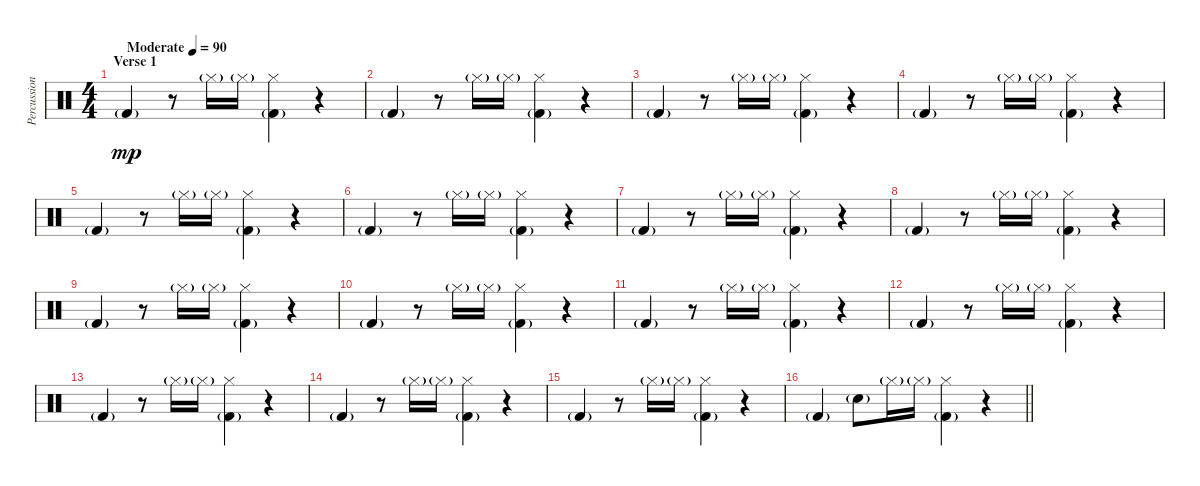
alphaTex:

\track ("Percussion" "Percussion") {instrument percussion}
\staff {score}
\articulation defaults
\ts (4 4)
\section ("" "Verse 1")
\tempo (90 "Moderate")
\clef neutral
\ks c "Kick (hit) 2"{g}.4{dy mp}
r.8 "Hi-Hat (closed)"{g}.16 "Hi-Hat (closed)"{g}.16 ("Hi-Hat (closed)" "Kick (hit) 2"{g}).4 r.4 |
"Kick (hit) 2"{g}.4 r.8 "Hi-Hat (closed)"{g}.16 "Hi-Hat (closed)"{g}.16 ("Hi-Hat (closed)" "Kick (hit) 2"{g}).4 r.4 |
"Kick (hit) 2"{g}.4 r.8 "Hi-Hat (closed)"{g}.16 "Hi-Hat (closed)"{g}.16 ("Hi-Hat (closed)" "Kick (hit) 2"{g}).4 r.4 |
"Kick (hit) 2"{g}.4 r.8 "Hi-Hat (closed)"{g}.16 "Hi-Hat (closed)"{g}.16 ("Hi-Hat (closed)" "Kick (hit) 2"{g}).4 r.4 |
"Kick (hit) 2"{g}.4 r.8 "Hi-Hat (closed)"{g}.16 "Hi-Hat (closed)"{g}.16 ("Hi-Hat (closed)" "Kick (hit) 2"{g}).4 r.4 |
"Kick (hit) 2"{g}.4 r.8 "Hi-Hat (closed)"{g}.16 "Hi-Hat (closed)"{g}.16 ("Hi-Hat (closed)" "Kick (hit) 2"{g}).4 r.4 |
"Kick (hit) 2"{g}.4 r.8 "Hi-Hat (closed)"{g}.16 "Hi-Hat (closed)"{g}.16 ("Hi-Hat (closed)" "Kick (hit) 2"{g}).4 r.4 |
"Kick (hit) 2"{g}.4 r.8 "Hi-Hat (closed)"{g}.16 "Hi-Hat (closed)"{g}.16 ("Hi-Hat (closed)" "Kick (hit) 2"{g}).4 r.4 |
"Kick (hit) 2"{g}.4 r.8 "Hi-Hat (closed)"{g}.16 "Hi-Hat (closed)"{g}.16 ("Hi-Hat (closed)" "Kick (hit) 2"{g}).4 r.4 |
"Kick (hit) 2"{g}.4 r.8 "Hi-Hat (closed)"{g}.16 "Hi-Hat (closed)"{g}.16 ("Hi-Hat (closed)" "Kick (hit) 2"{g}).4 r.4 |
"Kick (hit) 2"{g}.4 r.8 "Hi-Hat (closed)"{g}.16 "Hi-Hat (closed)"{g}.16 ("Hi-Hat (closed)" "Kick (hit) 2"{g}).4 r.4 |
"Kick (hit) 2"{g}.4 r.8 "Hi-Hat (closed)"{g}.16 "Hi-Hat (closed)"{g}.16 ("Hi-Hat (closed)" "Kick (hit) 2"{g}).4 r.4 |
"Kick (hit) 2"{g}.4 r.8 "Hi-Hat (closed)"{g}.16 "Hi-Hat (closed)"{g}.16 ("Hi-Hat (closed)" "Kick (hit) 2"{g}).4 r.4 |
"Kick (hit) 2"{g}.4 r.8 "Hi-Hat (closed)"{g}.16 "Hi-Hat (closed)"{g}.16 ("Hi-Hat (closed)" "Kick (hit) 2"{g}).4 r.4 |
"Kick (hit) 2"{g}.4 r.8 "Hi-Hat (closed)"{g}.16 "Hi-Hat (closed)"{g}.16 ("Hi-Hat (closed)" "Kick (hit) 2"{g}).4 r.4 |
\barLineRight lightlight "Kick (hit) 2"{g}.4 "Snare (hit) 2"{g}.8 "Hi-Hat (closed)"{g}.16 "Hi-Hat (closed)"{g}.16
("Hi-Hat (closed)" "Kick (hit) 2"{g}).4 r.4
